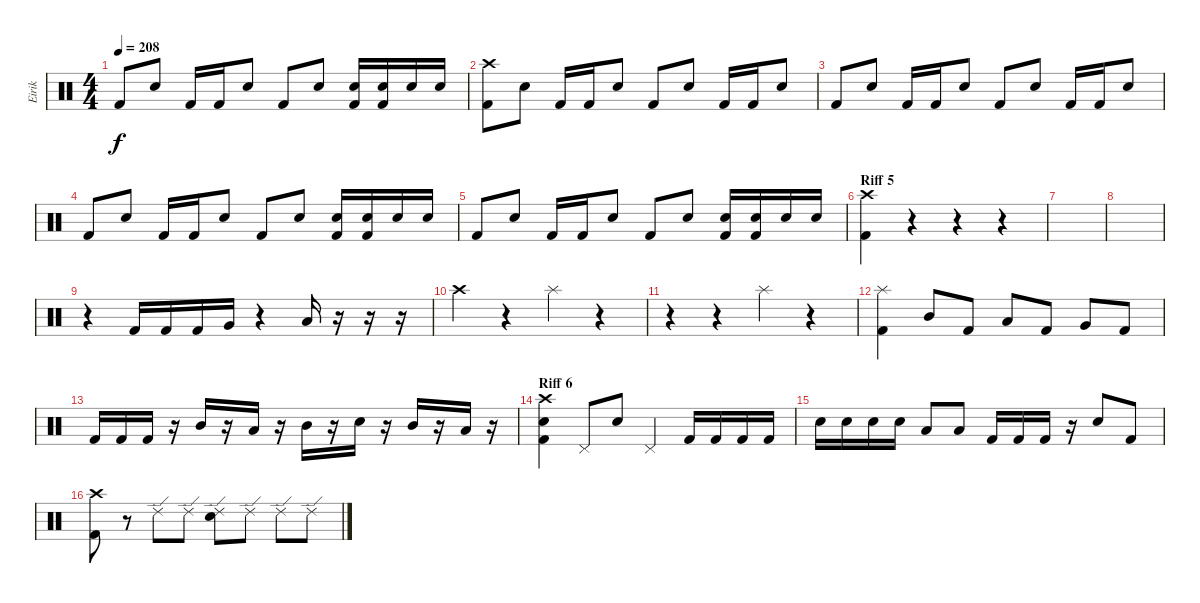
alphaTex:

\track ("Eirik" "Eirik") {instrument percussion}
\staff {score}
\articulation defaults
\ts (4 4)
\tempo 208
\clef neutral
\ks c "Kick (hit) 2".8{dy f} "Snare (hit) 2".8 "Kick (hit) 2".16 "Kick (hit) 2".16 "Snare (hit) 2".8 "Kick (hit) 2".8 "Snare (hit) 2".8
("Snare (hit) 2" "Kick (hit) 2").16 ("Snare (hit) 2" "Kick (hit) 2").16 "Snare (hit) 2".16 "Snare (hit) 2".16 |
("Crash high (hit)" "Kick (hit) 2").8 "Snare (hit) 2".8 "Kick (hit) 2".16 "Kick (hit) 2".16 "Snare (hit) 2".8 "Kick (hit) 2".8 "Snare (hit) 2".8 "Kick (hit) 2".16 "Kick (hit) 2".16 "Snare (hit) 2".8 |
"Kick (hit) 2".8 "Snare (hit) 2".8 "Kick (hit) 2".16 "Kick (hit) 2".16 "Snare (hit) 2".8 "Kick (hit) 2".8 "Snare (hit) 2".8 "Kick (hit) 2".16 "Kick (hit) 2".16 "Snare (hit) 2".8 |
"Kick (hit) 2".8 "Snare (hit) 2".8 "Kick (hit) 2".16 "Kick (hit) 2".16 "Snare (hit) 2".8 "Kick (hit) 2".8 "Snare (hit) 2".8 ("Snare (hit) 2" "Kick (hit) 2").16 ("Snare (hit) 2" "Kick (hit) 2").16 "Snare (hit) 2".16 "Snare (hit) 2".16 |
"Kick (hit) 2".8 "Snare (hit) 2".8 "Kick (hit) 2".16 "Kick (hit) 2".16 "Snare (hit) 2".8 "Kick (hit) 2".8 "Snare (hit) 2".8 ("Snare (hit) 2" "Kick (hit) 2").16 ("Snare (hit) 2" "Kick (hit) 2").16 "Snare (hit) 2".16 "Snare (hit) 2".16 |
\section ("" "Riff 5")
("Crash high (hit)" "Kick (hit) 2").4 r.4 r.4 r.4 |
|
|
r.4 "Kick (hit) 2".16 "Kick (hit) 2".16 "Kick (hit) 2".16 "Very Low Tom (hit)".16 r.4 "Low Tom (hit)".16 r.16 r.16 r.16 |
"Crash high (hit)".4 r.4 "Splash (hit)".4 r.4 |
r.4 r.4 "Splash (hit)".4 r.4 |
("Splash (hit)" "Kick (hit) 2").4 "Mid Tom (hit)".8 "Kick (hit) 2".8 "Low Tom (hit)".8 "Kick (hit) 2".8 "Very Low Tom (hit)".8 "Kick (hit) 2".8 |
"Kick (hit) 2".16 "Kick (hit) 2".16 "Kick (hit) 2".16 r.16 "Mid Tom (hit)".16 r.16 "Low Tom (hit)".16 r.16 "Mid Tom (hit)".16 r.16 "Snare (hit) 2".16 r.16 "Mid Tom (hit)".16 r.16 "Low Tom (hit)".16 r.16 |
\section ("" "Riff 6")
("Crash high (hit)" "Snare (hit) 2" "Kick (hit) 2").4 "Pedal Hi-Hat (hit)".8 "Snare (hit) 2".8 "Pedal Hi-Hat (hit)".4 "Kick (hit) 2".16 "Kick (hit) 2".16 "Kick (hit) 2".16 "Kick (hit) 2".16 |
"Snare (hit) 2".16 "Snare (hit) 2".16 "Snare (hit) 2".16 "Snare (hit) 2".16 "Low Tom (hit)".8 "Low Tom (hit)".8 "Kick (hit) 2".16 "Kick (hit) 2".16 "Kick (hit) 2".16 r.16 "Snare (hit) 2".8 "Kick (hit) 2".8 |
("Crash high (hit)" "Kick (hit) 2").8 r.8 "Ride (edge) 2".8 "Ride (edge) 2".8 ("Ride (edge) 2" "Snare (hit) 2").8 "Ride (edge) 2".8 "Ride (edge) 2".8 "Ride (edge) 2".8
